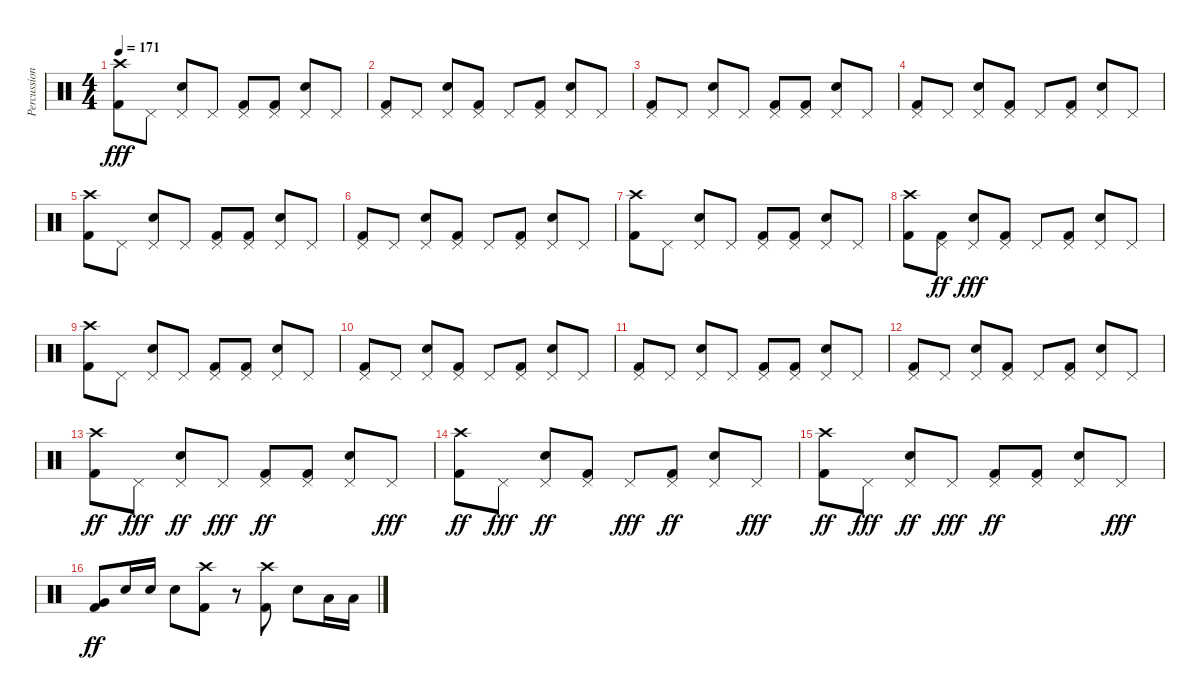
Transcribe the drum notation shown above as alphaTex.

\track ("Percussion" "Percussion") {instrument percussion}
\staff {score}
\articulation defaults
\ts (4 4)
\tempo 171
\clef neutral
\ks c
("Kick (hit) 2" "Crash high (hit)").8{dy fff} "Pedal Hi-Hat (hit)".8 ("Snare (hit) 2" "Pedal Hi-Hat (hit)").8 "Pedal Hi-Hat (hit)".8 ("Kick (hit) 2" "Pedal Hi-Hat (hit)").8 ("Kick (hit) 2" "Pedal Hi-Hat (hit)").8 ("Snare (hit) 2" "Pedal Hi-Hat (hit)").8 "Pedal Hi-Hat (hit)".8 |
("Kick (hit) 2" "Pedal Hi-Hat (hit)").8 "Pedal Hi-Hat (hit)".8 ("Snare (hit) 2" "Pedal Hi-Hat (hit)").8 ("Kick (hit) 2" "Pedal Hi-Hat (hit)").8 "Pedal Hi-Hat (hit)".8 ("Kick (hit) 2" "Pedal Hi-Hat (hit)").8 ("Snare (hit) 2" "Pedal Hi-Hat (hit)").8 "Pedal Hi-Hat (hit)".8 |
("Kick (hit) 2" "Pedal Hi-Hat (hit)").8 "Pedal Hi-Hat (hit)".8 ("Snare (hit) 2" "Pedal Hi-Hat (hit)").8 "Pedal Hi-Hat (hit)".8 ("Kick (hit) 2" "Pedal Hi-Hat (hit)").8 ("Kick (hit) 2" "Pedal Hi-Hat (hit)").8 ("Snare (hit) 2" "Pedal Hi-Hat (hit)").8 "Pedal Hi-Hat (hit)".8 |
("Kick (hit) 2" "Pedal Hi-Hat (hit)").8 "Pedal Hi-Hat (hit)".8 ("Snare (hit) 2" "Pedal Hi-Hat (hit)").8 ("Kick (hit) 2" "Pedal Hi-Hat (hit)").8 "Pedal Hi-Hat (hit)".8 ("Kick (hit) 2" "Pedal Hi-Hat (hit)").8 ("Snare (hit) 2" "Pedal Hi-Hat (hit)").8 "Pedal Hi-Hat (hit)".8 |
("Kick (hit) 2" "Crash high (hit)").8 "Pedal Hi-Hat (hit)".8 ("Snare (hit) 2" "Pedal Hi-Hat (hit)").8 "Pedal Hi-Hat (hit)".8 ("Kick (hit) 2" "Pedal Hi-Hat (hit)").8 ("Kick (hit) 2" "Pedal Hi-Hat (hit)").8 ("Snare (hit) 2" "Pedal Hi-Hat (hit)").8 "Pedal Hi-Hat (hit)".8 |
("Kick (hit) 2" "Pedal Hi-Hat (hit)").8 "Pedal Hi-Hat (hit)".8 ("Snare (hit) 2" "Pedal Hi-Hat (hit)").8 ("Kick (hit) 2" "Pedal Hi-Hat (hit)").8 "Pedal Hi-Hat (hit)".8 ("Kick (hit) 2" "Pedal Hi-Hat (hit)").8 ("Snare (hit) 2" "Pedal Hi-Hat (hit)").8 "Pedal Hi-Hat (hit)".8 |
("Kick (hit) 2" "Crash high (hit)").8 "Pedal Hi-Hat (hit)".8 ("Snare (hit) 2" "Pedal Hi-Hat (hit)").8 "Pedal Hi-Hat (hit)".8 ("Kick (hit) 2" "Pedal Hi-Hat (hit)").8 ("Kick (hit) 2" "Pedal Hi-Hat (hit)").8 ("Snare (hit) 2" "Pedal Hi-Hat (hit)").8 "Pedal Hi-Hat (hit)".8 |
("Kick (hit) 2" "Crash high (hit)").8 ("Pedal Hi-Hat (hit)" "Kick (hit) 2").8{dy ff} ("Snare (hit) 2" "Pedal Hi-Hat (hit)").8{dy fff} ("Kick (hit) 2" "Pedal Hi-Hat (hit)").8 "Pedal Hi-Hat (hit)".8 ("Kick (hit) 2" "Pedal Hi-Hat (hit)").8 ("Snare (hit) 2" "Pedal Hi-Hat (hit)").8 "Pedal Hi-Hat (hit)".8 |
("Kick (hit) 2" "Crash high (hit)").8 "Pedal Hi-Hat (hit)".8 ("Snare (hit) 2" "Pedal Hi-Hat (hit)").8 "Pedal Hi-Hat (hit)".8 ("Kick (hit) 2" "Pedal Hi-Hat (hit)").8 ("Kick (hit) 2" "Pedal Hi-Hat (hit)").8 ("Snare (hit) 2" "Pedal Hi-Hat (hit)").8 "Pedal Hi-Hat (hit)".8 |
("Kick (hit) 2" "Pedal Hi-Hat (hit)").8 "Pedal Hi-Hat (hit)".8 ("Snare (hit) 2" "Pedal Hi-Hat (hit)").8 ("Kick (hit) 2" "Pedal Hi-Hat (hit)").8 "Pedal Hi-Hat (hit)".8 ("Kick (hit) 2" "Pedal Hi-Hat (hit)").8 ("Snare (hit) 2" "Pedal Hi-Hat (hit)").8 "Pedal Hi-Hat (hit)".8 |
("Kick (hit) 2" "Pedal Hi-Hat (hit)").8 "Pedal Hi-Hat (hit)".8 ("Snare (hit) 2" "Pedal Hi-Hat (hit)").8 "Pedal Hi-Hat (hit)".8 ("Kick (hit) 2" "Pedal Hi-Hat (hit)").8 ("Kick (hit) 2" "Pedal Hi-Hat (hit)").8 ("Snare (hit) 2" "Pedal Hi-Hat (hit)").8 "Pedal Hi-Hat (hit)".8 |
("Kick (hit) 2" "Pedal Hi-Hat (hit)").8 "Pedal Hi-Hat (hit)".8 ("Snare (hit) 2" "Pedal Hi-Hat (hit)").8 ("Kick (hit) 2" "Pedal Hi-Hat (hit)").8 "Pedal Hi-Hat (hit)".8 ("Kick (hit) 2" "Pedal Hi-Hat (hit)").8 ("Snare (hit) 2" "Pedal Hi-Hat (hit)").8 "Pedal Hi-Hat (hit)".8 |
("Crash high (hit)" "Kick (hit) 2").8{dy ff} "Pedal Hi-Hat (hit)".8{dy fff} ("Pedal Hi-Hat (hit)" "Snare (hit) 2").8{dy ff} "Pedal Hi-Hat (hit)".8{dy fff} ("Pedal Hi-Hat (hit)" "Kick (hit) 2").8{dy ff} ("Pedal Hi-Hat (hit)" "Kick (hit) 2").8 ("Pedal Hi-Hat (hit)" "Snare (hit) 2").8 "Pedal Hi-Hat (hit)".8{dy fff} |
("Crash high (hit)" "Kick (hit) 2").8{dy ff} "Pedal Hi-Hat (hit)".8{dy fff} ("Pedal Hi-Hat (hit)" "Snare (hit) 2").8{dy ff} ("Pedal Hi-Hat (hit)" "Kick (hit) 2").8 "Pedal Hi-Hat (hit)".8{dy fff} ("Pedal Hi-Hat (hit)" "Kick (hit) 2").8{dy ff} ("Pedal Hi-Hat (hit)" "Snare (hit) 2").8 "Pedal Hi-Hat (hit)".8{dy fff} |
("Crash high (hit)" "Kick (hit) 2").8{dy ff} "Pedal Hi-Hat (hit)".8{dy fff} ("Pedal Hi-Hat (hit)" "Snare (hit) 2").8{dy ff} "Pedal Hi-Hat (hit)".8{dy fff} ("Pedal Hi-Hat (hit)" "Kick (hit) 2").8{dy ff} ("Pedal Hi-Hat (hit)" "Kick (hit) 2").8 ("Pedal Hi-Hat (hit)" "Snare (hit) 2").8 "Pedal Hi-Hat (hit)".8{dy fff} |
("Very Low Tom (hit)" "Kick (hit) 2").8{dy ff} "Snare (hit) 2".16 "Snare (hit) 2".16 "Snare (hit) 2".8 ("Crash high (hit)" "Kick (hit) 2").8 r.8 ("Crash high (hit)" "Kick (hit) 2").8 "Snare (hit) 2".8 "Low Tom (hit)".16 "Low Tom (hit)".16
